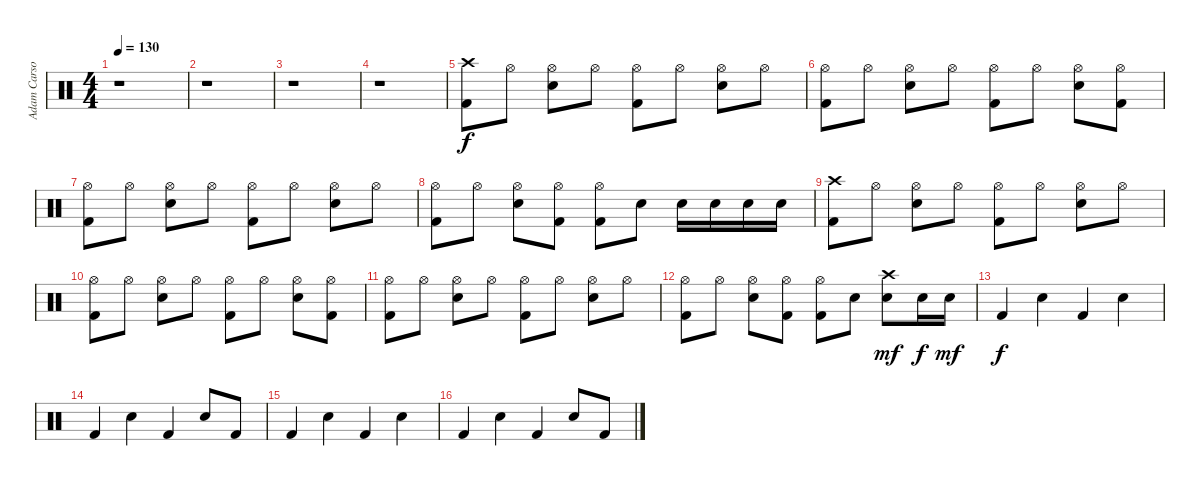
\track ("Adam Carson" "Adam Carso") {instrument percussion}
\staff {score}
\articulation defaults
\ts (4 4)
\tempo 130
\clef neutral
\ks c
r.1{dy f} |
r.1 |
r.1 |
r.1 |
("Crash high (hit)" "Kick (hit) 2").8 "Hi-Hat (open)".8 ("Hi-Hat (open)" "Electric Snare (hit)").8 "Hi-Hat (open)".8 ("Hi-Hat (open)" "Kick (hit) 2").8 "Hi-Hat (open)".8 ("Hi-Hat (open)" "Electric Snare (hit)").8 "Hi-Hat (open)".8 |
("Hi-Hat (open)" "Kick (hit) 2").8 "Hi-Hat (open)".8 ("Hi-Hat (open)" "Electric Snare (hit)").8 "Hi-Hat (open)".8 ("Hi-Hat (open)" "Kick (hit) 2").8 "Hi-Hat (open)".8 ("Hi-Hat (open)" "Electric Snare (hit)").8 ("Hi-Hat (open)" "Kick (hit) 2").8 |
("Hi-Hat (open)" "Kick (hit) 2").8 "Hi-Hat (open)".8 ("Hi-Hat (open)" "Electric Snare (hit)").8 "Hi-Hat (open)".8 ("Hi-Hat (open)" "Kick (hit) 2").8 "Hi-Hat (open)".8 ("Hi-Hat (open)" "Electric Snare (hit)").8 "Hi-Hat (open)".8 |
("Hi-Hat (open)" "Kick (hit) 2").8 "Hi-Hat (open)".8 ("Hi-Hat (open)" "Electric Snare (hit)").8 ("Hi-Hat (open)" "Kick (hit) 2").8 ("Hi-Hat (open)" "Kick (hit) 2").8 "Electric Snare (hit)".8 "Electric Snare (hit)".16 "Electric Snare (hit)".16 "Electric Snare (hit)".16 "Electric Snare (hit)".16 |
("Crash high (hit)" "Kick (hit) 2").8 "Hi-Hat (open)".8 ("Hi-Hat (open)" "Electric Snare (hit)").8 "Hi-Hat (open)".8 ("Hi-Hat (open)" "Kick (hit) 2").8 "Hi-Hat (open)".8 ("Hi-Hat (open)" "Electric Snare (hit)").8 "Hi-Hat (open)".8 |
("Hi-Hat (open)" "Kick (hit) 2").8 "Hi-Hat (open)".8 ("Hi-Hat (open)" "Electric Snare (hit)").8 "Hi-Hat (open)".8 ("Hi-Hat (open)" "Kick (hit) 2").8 "Hi-Hat (open)".8 ("Hi-Hat (open)" "Electric Snare (hit)").8 ("Hi-Hat (open)" "Kick (hit) 2").8 |
("Hi-Hat (open)" "Kick (hit) 2").8 "Hi-Hat (open)".8 ("Hi-Hat (open)" "Electric Snare (hit)").8 "Hi-Hat (open)".8 ("Hi-Hat (open)" "Kick (hit) 2").8 "Hi-Hat (open)".8 ("Hi-Hat (open)" "Electric Snare (hit)").8 "Hi-Hat (open)".8 |
("Hi-Hat (open)" "Kick (hit) 2").8 "Hi-Hat (open)".8 ("Hi-Hat (open)" "Electric Snare (hit)").8 ("Hi-Hat (open)" "Kick (hit) 2").8 ("Hi-Hat (open)" "Kick (hit) 2").8 "Electric Snare (hit)".8 ("Crash high (hit)" "Electric Snare (hit)").8{dy mf} "Electric Snare (hit)".16{dy f} "Electric Snare (hit)".16{dy mf} |
"Kick (hit) 2".4{dy f} "Electric Snare (hit)".4 "Kick (hit) 2".4 "Electric Snare (hit)".4 |
"Kick (hit) 2".4 "Electric Snare (hit)".4 "Kick (hit) 2".4 "Electric Snare (hit)".8 "Kick (hit) 2".8 |
"Kick (hit) 2".4 "Electric Snare (hit)".4 "Kick (hit) 2".4 "Electric Snare (hit)".4 |
"Kick (hit) 2".4 "Electric Snare (hit)".4 "Kick (hit) 2".4 "Electric Snare (hit)".8 "Kick (hit) 2".8
